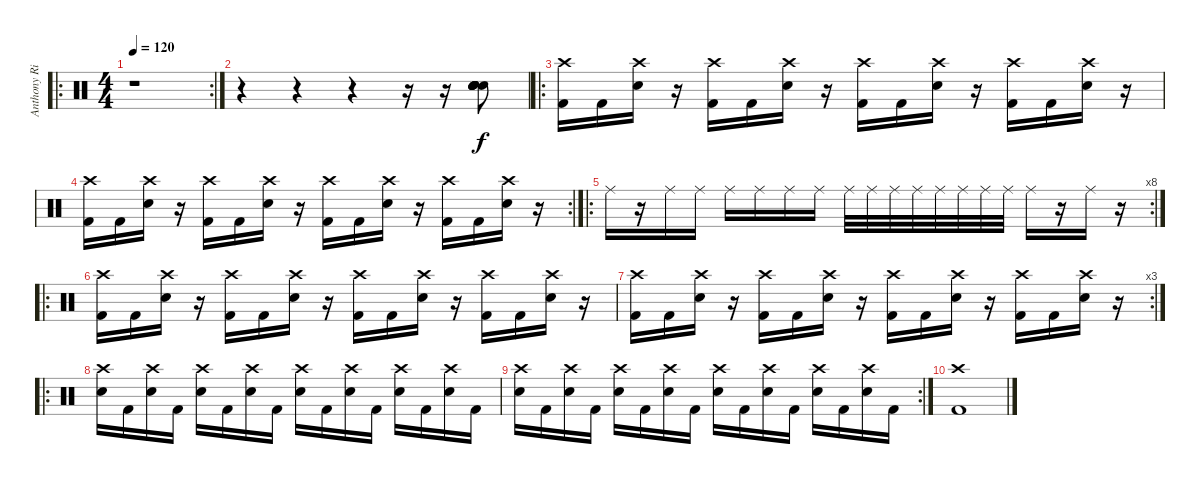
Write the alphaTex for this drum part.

\track ("Anthony Richards" "Anthony Ri") {instrument percussion}
\staff {score}
\articulation defaults
\ro
\rc 2
\ts (4 4)
\tempo 120
\clef neutral
\ks c
r.1{dy f} |
r.4 r.4 r.4 r.16 r.16 ("Snare (hit) 2" "Snare (hit) 2" "Snare (hit) 2" "Snare (hit) 2" "Snare (hit) 2" "Snare (hit) 2").8 |
\ro
("Crash high (hit)" "Kick (hit) 2").16 "Kick (hit) 2".16 ("Crash high (hit)" "Snare (hit) 2").16 r.16 ("Crash high (hit)" "Kick (hit) 2").16 "Kick (hit) 2".16 ("Crash high (hit)" "Snare (hit) 2").16 r.16 ("Crash high (hit)" "Kick (hit) 2").16 "Kick (hit) 2".16 ("Crash high (hit)" "Snare (hit) 2").16 r.16 ("Crash high (hit)" "Kick (hit) 2").16 "Kick (hit) 2".16 ("Crash high (hit)" "Snare (hit) 2").16 r.16 |
\rc 2
("Crash high (hit)" "Kick (hit) 2").16 "Kick (hit) 2".16 ("Crash high (hit)" "Snare (hit) 2").16 r.16 ("Crash high (hit)" "Kick (hit) 2").16 "Kick (hit) 2".16 ("Crash high (hit)" "Snare (hit) 2").16 r.16 ("Crash high (hit)" "Kick (hit) 2").16 "Kick (hit) 2".16 ("Crash high (hit)" "Snare (hit) 2").16 r.16 ("Crash high (hit)" "Kick (hit) 2").16 "Kick (hit) 2".16 ("Crash high (hit)" "Snare (hit) 2").16 r.16 |
\ro
\rc 8 "Ride (middle)".16
r.16 "Ride (middle)".16 "Ride (middle)".16 "Ride (middle)".16 "Ride (middle)".16 "Ride (middle)".16 "Ride (middle)".16 "Ride (middle)".32 "Ride (middle)".32 "Ride (middle)".32 "Ride (middle)".32 "Ride (middle)".32 "Ride (middle)".32 "Ride (middle)".32 "Ride (middle)".32 "Ride (middle)".16 r.16 "Ride (middle)".16 r.16 |
\ro
("Crash high (hit)" "Kick (hit) 2").16 "Kick (hit) 2".16 ("Crash high (hit)" "Snare (hit) 2").16 r.16 ("Crash high (hit)" "Kick (hit) 2").16 "Kick (hit) 2".16 ("Crash high (hit)" "Snare (hit) 2").16 r.16 ("Crash high (hit)" "Kick (hit) 2").16 "Kick (hit) 2".16 ("Crash high (hit)" "Snare (hit) 2").16 r.16 ("Crash high (hit)" "Kick (hit) 2").16 "Kick (hit) 2".16 ("Crash high (hit)" "Snare (hit) 2").16 r.16 |
\rc 3
("Crash high (hit)" "Kick (hit) 2").16 "Kick (hit) 2".16 ("Crash high (hit)" "Snare (hit) 2").16 r.16 ("Crash high (hit)" "Kick (hit) 2").16 "Kick (hit) 2".16 ("Crash high (hit)" "Snare (hit) 2").16 r.16 ("Crash high (hit)" "Kick (hit) 2").16 "Kick (hit) 2".16 ("Crash high (hit)" "Snare (hit) 2").16 r.16 ("Crash high (hit)" "Kick (hit) 2").16 "Kick (hit) 2".16 ("Crash high (hit)" "Snare (hit) 2").16 r.16 |
\ro
("Crash high (hit)" "Snare (hit) 2").16 "Kick (hit) 2".16 ("Crash high (hit)" "Snare (hit) 2").16 "Kick (hit) 2".16 ("Crash high (hit)" "Snare (hit) 2").16 "Kick (hit) 2".16 ("Crash high (hit)" "Snare (hit) 2").16 "Kick (hit) 2".16 ("Crash high (hit)" "Snare (hit) 2").16 "Kick (hit) 2".16 ("Crash high (hit)" "Snare (hit) 2").16 "Kick (hit) 2".16 ("Crash high (hit)" "Snare (hit) 2").16 "Kick (hit) 2".16 ("Crash high (hit)" "Snare (hit) 2").16 "Kick (hit) 2".16 |
\rc 2
("Crash high (hit)" "Snare (hit) 2").16 "Kick (hit) 2".16 ("Crash high (hit)" "Snare (hit) 2").16 "Kick (hit) 2".16 ("Crash high (hit)" "Snare (hit) 2").16 "Kick (hit) 2".16 ("Crash high (hit)" "Snare (hit) 2").16 "Kick (hit) 2".16 ("Crash high (hit)" "Snare (hit) 2").16 "Kick (hit) 2".16 ("Crash high (hit)" "Snare (hit) 2").16 "Kick (hit) 2".16 ("Crash high (hit)" "Snare (hit) 2").16 "Kick (hit) 2".16 ("Crash high (hit)" "Snare (hit) 2").16 "Kick (hit) 2".16 |
("Crash high (hit)" "Kick (hit) 2").1
